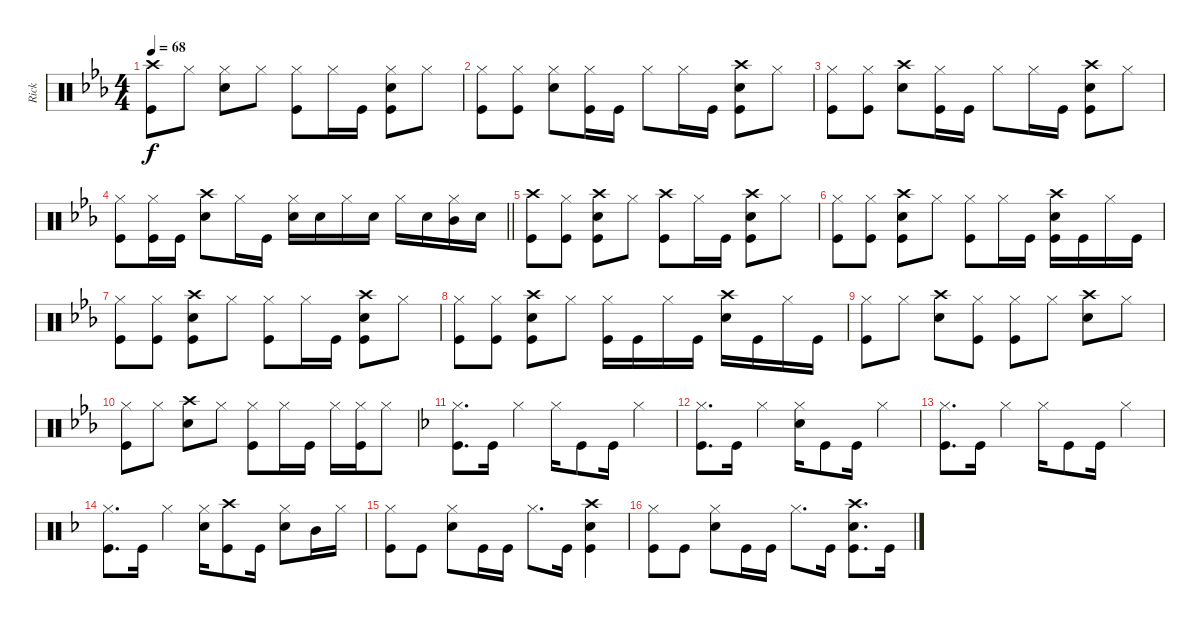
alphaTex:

\track ("Rick " "Rick ") {instrument percussion}
\staff {score}
\articulation defaults
\ts (4 4)
\tempo 68
\clef neutral
\ks eb
("Crash high (hit)" "Kick (hit)").8{dy f} "Hi-Hat (closed)".8 ("Hi-Hat (closed)" "Snare (hit) 2").8 "Hi-Hat (closed)".8 ("Hi-Hat (closed)" "Kick (hit)").8 "Hi-Hat (closed)".16 "Kick (hit)".16 ("Hi-Hat (closed)" "Snare (hit) 2" "Kick (hit)").8 "Hi-Hat (closed)".8 |
("Hi-Hat (closed)" "Kick (hit)").8 ("Hi-Hat (closed)" "Kick (hit)").8 ("Hi-Hat (closed)" "Snare (hit) 2").8 ("Hi-Hat (closed)" "Kick (hit)").16 "Kick (hit)".16 "Hi-Hat (closed)".8 "Hi-Hat (closed)".16 "Kick (hit)".16 ("Crash high (hit)" "Snare (hit) 2" "Kick (hit)").8 "Hi-Hat (closed)".8 |
("Hi-Hat (closed)" "Kick (hit)").8 ("Hi-Hat (closed)" "Kick (hit)").8 ("Crash high (hit)" "Snare (hit) 2").8 ("Hi-Hat (closed)" "Kick (hit)").16 "Kick (hit)".16 "Hi-Hat (closed)".8 "Hi-Hat (closed)".16 "Kick (hit)".16 ("Crash high (hit)" "Snare (hit) 2" "Kick (hit)").8 "Hi-Hat (closed)".8 |
\barLineRight lightlight
("Hi-Hat (closed)" "Kick (hit)").8 ("Hi-Hat (closed)" "Kick (hit)").16 "Kick (hit)".16 ("Crash high (hit)" "Snare (hit) 2").8 "Hi-Hat (closed)".16 "Kick (hit)".16 ("Hi-Hat (closed)" "Snare (hit) 2").16 "Snare (hit) 2".16 "Hi-Hat (closed)".16 "Snare (hit) 2".16 "Hi-Hat (closed)".16 "Snare (hit) 2".16 ("Hi-Hat (closed)" "Mid Tom (hit)").16 "Snare (hit) 2".16 |
("Crash high (hit)" "Kick (hit)").8 ("Hi-Hat (closed)" "Kick (hit)").8 ("Crash high (hit)" "Snare (hit) 2" "Kick (hit)").8 "Hi-Hat (closed)".8 ("Crash high (hit)" "Kick (hit)").8 "Hi-Hat (closed)".16 "Kick (hit)".16 ("Crash high (hit)" "Snare (hit) 2" "Kick (hit)").8 "Hi-Hat (closed)".8 |
("Hi-Hat (closed)" "Kick (hit)").8 ("Hi-Hat (closed)" "Kick (hit)").8 ("Crash high (hit)" "Snare (hit) 2" "Kick (hit)").8 "Hi-Hat (closed)".8 ("Hi-Hat (closed)" "Kick (hit)").8 "Hi-Hat (closed)".16 "Kick (hit)".16 ("Crash high (hit)" "Snare (hit) 2" "Kick (hit)").16 "Kick (hit)".16 "Hi-Hat (closed)".16 "Kick (hit)".16 |
("Hi-Hat (closed)" "Kick (hit)").8 ("Hi-Hat (closed)" "Kick (hit)").8 ("Crash high (hit)" "Snare (hit) 2" "Kick (hit)").8 "Hi-Hat (closed)".8 ("Hi-Hat (closed)" "Kick (hit)").8 "Hi-Hat (closed)".16 "Kick (hit)".16 ("Crash high (hit)" "Snare (hit) 2" "Kick (hit)").8 "Hi-Hat (closed)".8 |
("Hi-Hat (closed)" "Kick (hit)").8 ("Hi-Hat (closed)" "Kick (hit)").8 ("Crash high (hit)" "Snare (hit) 2" "Kick (hit)").8 "Hi-Hat (closed)".8 ("Hi-Hat (closed)" "Kick (hit)").16 "Kick (hit)".16 "Hi-Hat (closed)".16 "Kick (hit)".16 ("Crash high (hit)" "Snare (hit) 2").16 "Kick (hit)".16 "Hi-Hat (closed)".16 "Kick (hit)".16 |
("Hi-Hat (closed)" "Kick (hit)").8 "Hi-Hat (closed)".8 ("Crash high (hit)" "Snare (hit) 2").8 ("Hi-Hat (closed)" "Kick (hit)").8 ("Hi-Hat (closed)" "Kick (hit)").8 "Hi-Hat (closed)".8 ("Crash high (hit)" "Snare (hit) 2").8 "Hi-Hat (closed)".8 |
("Hi-Hat (closed)" "Kick (hit)").8 "Hi-Hat (closed)".8 ("Crash high (hit)" "Snare (hit) 2").8 "Hi-Hat (closed)".8 ("Hi-Hat (closed)" "Kick (hit)").8 "Hi-Hat (closed)".16 "Kick (hit)".16 "Hi-Hat (closed)".16 ("Hi-Hat (closed)" "Kick (hit)").16 "Hi-Hat (closed)".8 |
\ks dminor
("Hi-Hat (closed)" "Kick (hit)").8{d} "Kick (hit)".16 "Hi-Hat (closed)".4 "Hi-Hat (closed)".16 "Kick (hit)".8 "Kick (hit)".16 "Hi-Hat (closed)".4 |
("Hi-Hat (closed)" "Kick (hit)").8{d} "Kick (hit)".16 "Hi-Hat (closed)".4 ("Hi-Hat (closed)" "Snare (hit) 2").16 "Kick (hit)".8 "Kick (hit)".16 "Hi-Hat (closed)".4 |
("Hi-Hat (closed)" "Kick (hit)").8{d} "Kick (hit)".16 "Hi-Hat (closed)".4 "Hi-Hat (closed)".16 "Kick (hit)".8 "Kick (hit)".16 "Hi-Hat (closed)".4 |
("Hi-Hat (closed)" "Kick (hit)").8{d} "Kick (hit)".16 "Hi-Hat (closed)".4 ("Hi-Hat (closed)" "Snare (hit) 2").16 ("Crash high (hit)" "Kick (hit)").8 "Kick (hit)".16 ("Hi-Hat (closed)" "Snare (hit) 2").8 "Mid Tom (hit)".16 "Hi-Hat (closed)".16 |
("Hi-Hat (closed)" "Kick (hit)").8 "Kick (hit)".8 ("Hi-Hat (closed)" "Snare (hit) 2").8 "Kick (hit)".16 "Kick (hit)".16 "Hi-Hat (closed)".8{d} "Kick (hit)".16 ("Crash high (hit)" "Snare (hit) 2" "Kick (hit)").4 |
("Hi-Hat (closed)" "Kick (hit)").8 "Kick (hit)".8 ("Hi-Hat (closed)" "Snare (hit) 2").8 "Kick (hit)".16 "Kick (hit)".16 "Hi-Hat (closed)".8{d} "Kick (hit)".16 ("Crash high (hit)" "Snare (hit) 2" "Kick (hit)").8{d} "Kick (hit)".16
